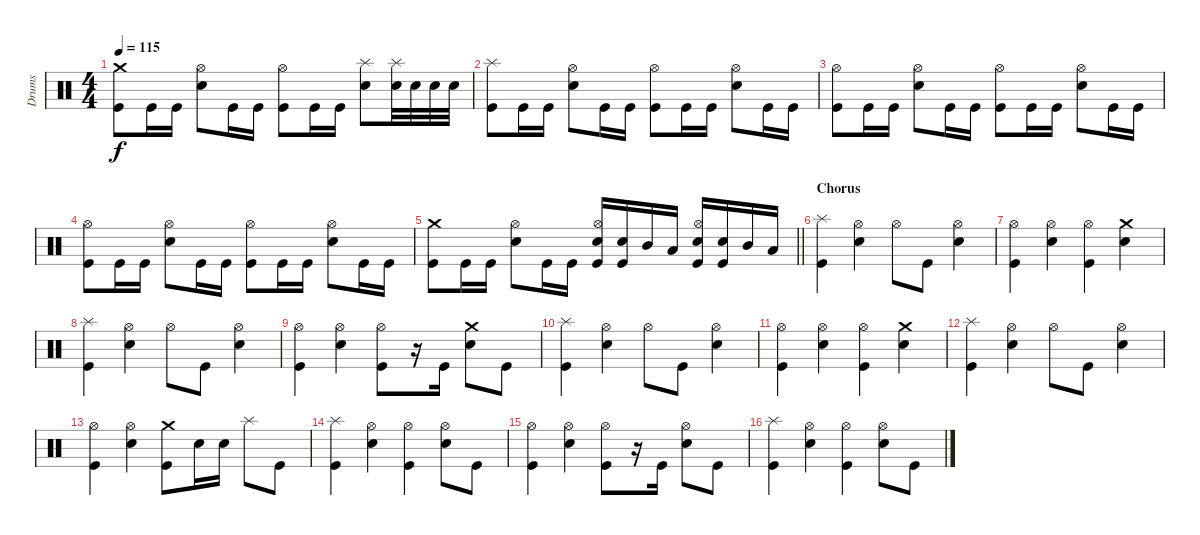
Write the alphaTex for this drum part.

\track ("Drums" "Drums") {instrument percussion}
\staff {score}
\articulation defaults
\ts (4 4)
\tempo 115
\clef neutral
\ks c
("Crash medium (hit)" "Kick (hit)").8{dy f} "Kick (hit)".16 "Kick (hit)".16 ("Hi-Hat (open)" "Snare (hit) 2").8 "Kick (hit)".16 "Kick (hit)".16 ("Hi-Hat (open)" "Kick (hit)").8 "Kick (hit)".16 "Kick (hit)".16 ("Splash (hit)" "Snare (hit) 2").8 ("Splash (hit)" "Snare (hit) 2").32 "Snare (hit) 2".32 "Snare (hit) 2".32 "Snare (hit) 2".32 |
("Splash (hit)" "Kick (hit)").8 "Kick (hit)".16 "Kick (hit)".16 ("Hi-Hat (open)" "Snare (hit) 2").8 "Kick (hit)".16 "Kick (hit)".16 ("Hi-Hat (open)" "Kick (hit)").8 "Kick (hit)".16 "Kick (hit)".16 ("Hi-Hat (open)" "Snare (hit) 2").8 "Kick (hit)".16 "Kick (hit)".16 |
("Hi-Hat (open)" "Kick (hit)").8 "Kick (hit)".16 "Kick (hit)".16 ("Hi-Hat (open)" "Snare (hit) 2").8 "Kick (hit)".16 "Kick (hit)".16 ("Hi-Hat (open)" "Kick (hit)").8 "Kick (hit)".16 "Kick (hit)".16 ("Hi-Hat (open)" "Snare (hit) 2").8 "Kick (hit)".16 "Kick (hit)".16 |
("Hi-Hat (open)" "Kick (hit)").8 "Kick (hit)".16 "Kick (hit)".16 ("Hi-Hat (open)" "Snare (hit) 2").8 "Kick (hit)".16 "Kick (hit)".16 ("Hi-Hat (open)" "Kick (hit)").8 "Kick (hit)".16 "Kick (hit)".16 ("Hi-Hat (open)" "Snare (hit) 2").8 "Kick (hit)".16 "Kick (hit)".16 |
\barLineRight lightlight
("Crash medium (hit)" "Kick (hit)").8 "Kick (hit)".16 "Kick (hit)".16 ("Hi-Hat (open)" "Snare (hit) 2").8 "Kick (hit)".16 "Kick (hit)".16 ("Hi-Hat (open)" "Snare (hit) 2" "Kick (hit)").16 ("Snare (hit) 2" "Kick (hit)").16 "Mid Tom (hit)".16 "Low Tom (hit)".16 ("Hi-Hat (open)" "Snare (hit) 2" "Kick (hit)").16 ("Snare (hit) 2" "Kick (hit)").16 "Mid Tom (hit)".16 "Low Tom (hit)".16 |
\section ("" "Chorus")
("Splash (hit)" "Kick (hit)").4 ("Hi-Hat (open)" "Snare (hit) 2").4 "Hi-Hat (open)".8 "Kick (hit)".8 ("Hi-Hat (open)" "Snare (hit) 2").4 |
("Hi-Hat (open)" "Kick (hit)").4 ("Hi-Hat (open)" "Snare (hit) 2").4 ("Hi-Hat (open)" "Kick (hit)").4 ("Crash medium (hit)" "Snare (hit) 2").4 |
("Splash (hit)" "Kick (hit)").4 ("Hi-Hat (open)" "Snare (hit) 2").4 "Hi-Hat (open)".8 "Kick (hit)".8 ("Hi-Hat (open)" "Snare (hit) 2").4 |
("Hi-Hat (open)" "Kick (hit)").4 ("Hi-Hat (open)" "Snare (hit) 2").4 ("Hi-Hat (open)" "Kick (hit)").8 r.16 "Kick (hit)".16 ("Crash medium (hit)" "Snare (hit) 2").8 "Kick (hit)".8 |
("Splash (hit)" "Kick (hit)").4 ("Hi-Hat (open)" "Snare (hit) 2").4 "Hi-Hat (open)".8 "Kick (hit)".8 ("Hi-Hat (open)" "Snare (hit) 2").4 |
("Hi-Hat (open)" "Kick (hit)").4 ("Hi-Hat (open)" "Snare (hit) 2").4 ("Hi-Hat (open)" "Kick (hit)").4 ("Crash medium (hit)" "Snare (hit) 2").4 |
("Splash (hit)" "Kick (hit)").4 ("Hi-Hat (open)" "Snare (hit) 2").4 "Hi-Hat (open)".8 "Kick (hit)".8 ("Hi-Hat (open)" "Snare (hit) 2").4 |
("Hi-Hat (open)" "Kick (hit)").4 ("Hi-Hat (open)" "Snare (hit) 2").4 ("Crash medium (hit)" "Kick (hit)").8 "Snare (hit) 2".16 "Snare (hit) 2".16 "Splash (hit)".8 "Kick (hit)".8 |
("Splash (hit)" "Kick (hit)").4 ("Hi-Hat (open)" "Snare (hit) 2").4 ("Hi-Hat (open)" "Kick (hit)").4 ("Hi-Hat (open)" "Snare (hit) 2").8 "Kick (hit)".8 |
("Hi-Hat (open)" "Kick (hit)").4 ("Hi-Hat (open)" "Snare (hit) 2").4 ("Hi-Hat (open)" "Kick (hit)").8 r.16 "Kick (hit)".16 ("Hi-Hat (open)" "Snare (hit) 2").8 "Kick (hit)".8 |
("Splash (hit)" "Kick (hit)").4 ("Hi-Hat (open)" "Snare (hit) 2").4 ("Hi-Hat (open)" "Kick (hit)").4 ("Hi-Hat (open)" "Snare (hit) 2").8 "Kick (hit)".8
